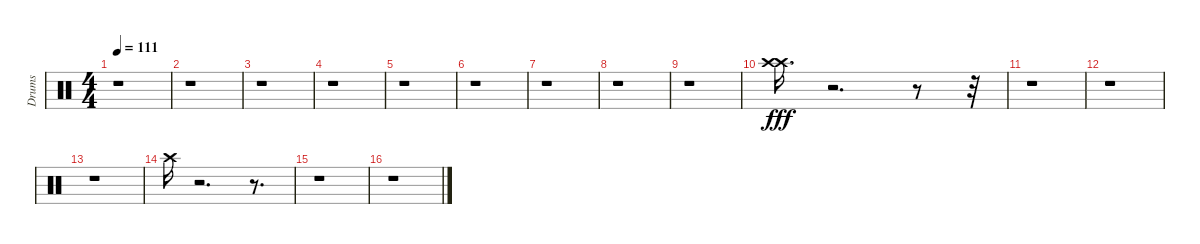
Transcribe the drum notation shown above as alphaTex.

\track ("Drums" "Drums") {instrument percussion}
\staff {score}
\articulation defaults
\ts (4 4)
\tempo 111
\clef neutral
\ks c
r.1{dy fff} |
r.1 |
r.1 |
r.1 |
r.1 |
r.1 |
r.1 |
r.1 |
r.1 |
("Crash high (hit)" "Crash high (hit)").16{d} r.2{d} r.8 r.32 |
r.1 |
r.1 |
r.1 |
"Crash high (hit)".16 r.2{d} r.8{d} |
r.1 |
r.1
